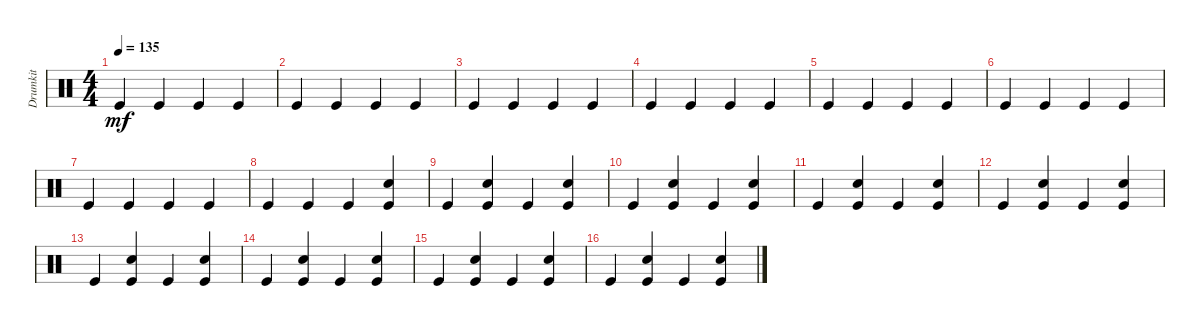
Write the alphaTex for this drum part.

\track ("Drumkit" "Drumkit") {solo instrument percussion}
\staff {score}
\articulation defaults
\ts (4 4)
\tempo 135
\clef neutral
\ks c "Kick (hit)".4{dy mf} "Kick (hit)".4 "Kick (hit)".4 "Kick (hit)".4
|
"Kick (hit)".4 "Kick (hit)".4 "Kick (hit)".4 "Kick (hit)".4 |
"Kick (hit)".4 "Kick (hit)".4 "Kick (hit)".4 "Kick (hit)".4 |
"Kick (hit)".4 "Kick (hit)".4 "Kick (hit)".4 "Kick (hit)".4 |
"Kick (hit)".4 "Kick (hit)".4 "Kick (hit)".4 "Kick (hit)".4 |
"Kick (hit)".4 "Kick (hit)".4 "Kick (hit)".4 "Kick (hit)".4 |
"Kick (hit)".4 "Kick (hit)".4 "Kick (hit)".4 "Kick (hit)".4 |
"Kick (hit)".4 "Kick (hit)".4 "Kick (hit)".4 ("Kick (hit)" "Snare (hit) 2").4 |
"Kick (hit)".4 ("Kick (hit)" "Snare (hit) 2").4 "Kick (hit)".4 ("Kick (hit)" "Snare (hit) 2").4 |
"Kick (hit)".4 ("Kick (hit)" "Snare (hit) 2").4 "Kick (hit)".4 ("Kick (hit)" "Snare (hit) 2").4 |
"Kick (hit)".4 ("Kick (hit)" "Snare (hit) 2").4 "Kick (hit)".4 ("Kick (hit)" "Snare (hit) 2").4 |
"Kick (hit)".4 ("Kick (hit)" "Snare (hit) 2").4 "Kick (hit)".4 ("Kick (hit)" "Snare (hit) 2").4 |
"Kick (hit)".4 ("Kick (hit)" "Snare (hit) 2").4 "Kick (hit)".4 ("Kick (hit)" "Snare (hit) 2").4 |
"Kick (hit)".4 ("Kick (hit)" "Snare (hit) 2").4 "Kick (hit)".4 ("Kick (hit)" "Snare (hit) 2").4 |
"Kick (hit)".4 ("Kick (hit)" "Snare (hit) 2").4 "Kick (hit)".4 ("Kick (hit)" "Snare (hit) 2").4 |
"Kick (hit)".4 ("Kick (hit)" "Snare (hit) 2").4 "Kick (hit)".4 ("Kick (hit)" "Snare (hit) 2").4
